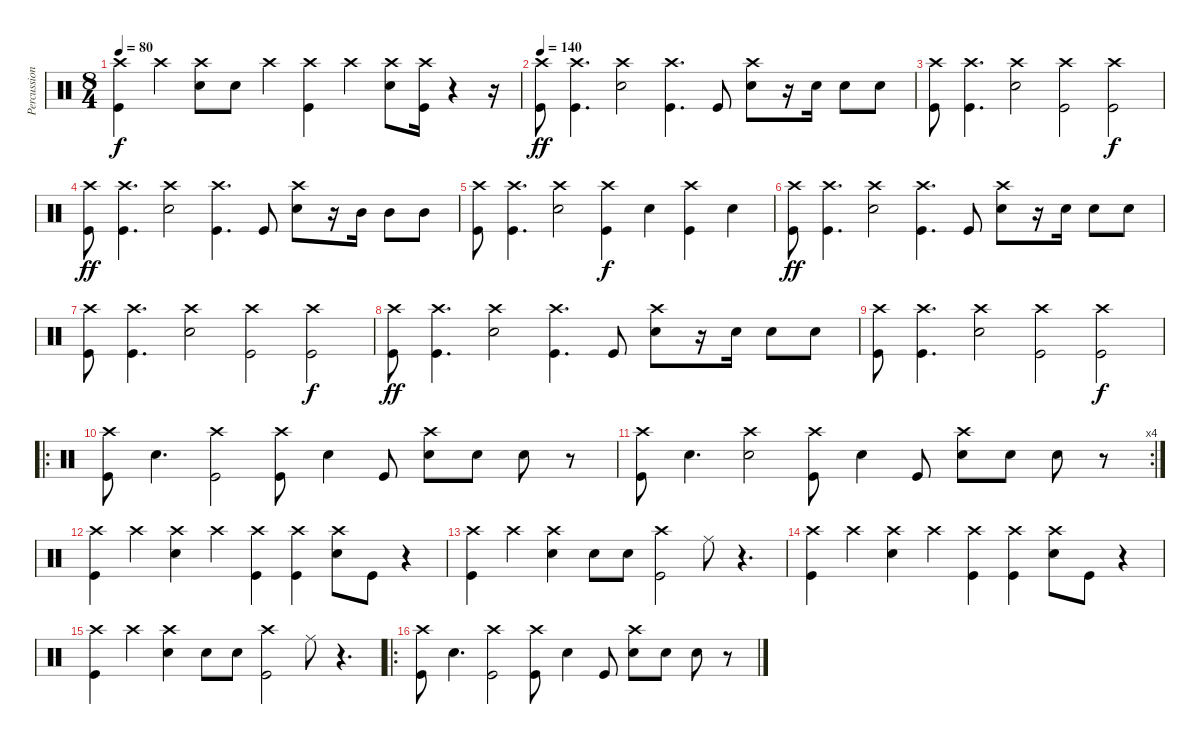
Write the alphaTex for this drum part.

\track ("Percussion" "Percussion") {instrument percussion}
\staff {score}
\articulation defaults
\ts (8 4)
\tempo 80
\clef neutral
\ks c
("Crash high (hit)" "Kick (hit)").4{dy f} "Crash high (hit)".4 ("Crash high (hit)" "Electric Snare (hit)").8 "Electric Snare (hit)".8 "Crash high (hit)".4 ("Crash high (hit)" "Kick (hit)").4 "Crash high (hit)".4 ("Crash high (hit)" "Electric Snare (hit)").8 ("Crash high (hit)" "Kick (hit)").16 r.4 r.16 |
\tempo 140
("Crash high (hit)" "Kick (hit)").8{dy ff} ("Crash high (hit)" "Kick (hit)").4{d} ("Crash high (hit)" "Electric Snare (hit)").2 ("Crash high (hit)" "Kick (hit)").4{d} "Kick (hit)".8 ("Crash high (hit)" "Electric Snare (hit)").8 r.16 "Electric Snare (hit)".16 "Electric Snare (hit)".8 "Electric Snare (hit)".8 |
("Crash high (hit)" "Kick (hit)").8 ("Crash high (hit)" "Kick (hit)").4{d} ("Crash high (hit)" "Electric Snare (hit)").2 ("Crash high (hit)" "Kick (hit)").2 ("Crash high (hit)" "Kick (hit)").2{dy f} |
("Crash high (hit)" "Kick (hit)").8{dy ff} ("Crash high (hit)" "Kick (hit)").4{d} ("Crash high (hit)" "Electric Snare (hit)").2 ("Crash high (hit)" "Kick (hit)").4{d} "Kick (hit)".8 ("Crash high (hit)" "Electric Snare (hit)").8 r.16 "Mid Tom (hit)".16 "Mid Tom (hit)".8 "Mid Tom (hit)".8 |
("Crash high (hit)" "Kick (hit)").8 ("Crash high (hit)" "Kick (hit)").4{d} ("Crash high (hit)" "Electric Snare (hit)").2 ("Crash high (hit)" "Kick (hit)").4{dy f} "Electric Snare (hit)".4 ("Crash high (hit)" "Kick (hit)").4 "Electric Snare (hit)".4 |
("Crash high (hit)" "Kick (hit)").8{dy ff} ("Crash high (hit)" "Kick (hit)").4{d} ("Crash high (hit)" "Electric Snare (hit)").2 ("Crash high (hit)" "Kick (hit)").4{d} "Kick (hit)".8 ("Crash high (hit)" "Electric Snare (hit)").8 r.16 "Electric Snare (hit)".16 "Electric Snare (hit)".8 "Electric Snare (hit)".8 |
("Crash high (hit)" "Kick (hit)").8 ("Crash high (hit)" "Kick (hit)").4{d} ("Crash high (hit)" "Electric Snare (hit)").2 ("Crash high (hit)" "Kick (hit)").2 ("Crash high (hit)" "Kick (hit)").2{dy f} |
("Crash high (hit)" "Kick (hit)").8{dy ff} ("Crash high (hit)" "Kick (hit)").4{d} ("Crash high (hit)" "Electric Snare (hit)").2 ("Crash high (hit)" "Kick (hit)").4{d} "Kick (hit)".8 ("Crash high (hit)" "Electric Snare (hit)").8 r.16 "Electric Snare (hit)".16 "Electric Snare (hit)".8 "Electric Snare (hit)".8 |
("Crash high (hit)" "Kick (hit)").8 ("Crash high (hit)" "Kick (hit)").4{d} ("Crash high (hit)" "Electric Snare (hit)").2 ("Crash high (hit)" "Kick (hit)").2 ("Crash high (hit)" "Kick (hit)").2{dy f} |
\ro
("Crash high (hit)" "Kick (hit)").8 "Electric Snare (hit)".4{d} ("Crash high (hit)" "Kick (hit)").2 ("Crash high (hit)" "Kick (hit)").8 "Electric Snare (hit)".4 "Kick (hit)".8 ("Crash high (hit)" "Electric Snare (hit)").8 "Electric Snare (hit)".8 "Electric Snare (hit)".8 r.8 |
\rc 4
("Crash high (hit)" "Kick (hit)").8 "Electric Snare (hit)".4{d} ("Crash high (hit)" "Electric Snare (hit)").2 ("Crash high (hit)" "Kick (hit)").8 "Electric Snare (hit)".4 "Kick (hit)".8 ("Crash high (hit)" "Electric Snare (hit)").8 "Electric Snare (hit)".8 "Electric Snare (hit)".8 r.8 |
("Crash high (hit)" "Kick (hit)").4 "Crash high (hit)".4 ("Crash high (hit)" "Electric Snare (hit)").4 "Crash high (hit)".4 ("Crash high (hit)" "Kick (hit)").4 ("Crash high (hit)" "Kick (hit)").4 ("Crash high (hit)" "Electric Snare (hit)").8 "Kick (hit)".8 r.4 |
("Crash high (hit)" "Kick (hit)").4 "Crash high (hit)".4 ("Crash high (hit)" "Electric Snare (hit)").4 "Electric Snare (hit)".8 "Electric Snare (hit)".8 ("Crash high (hit)" "Kick (hit)").2 "Ride (middle)".8 r.4{d} |
("Crash high (hit)" "Kick (hit)").4 "Crash high (hit)".4 ("Crash high (hit)" "Electric Snare (hit)").4 "Crash high (hit)".4 ("Crash high (hit)" "Kick (hit)").4 ("Crash high (hit)" "Kick (hit)").4 ("Crash high (hit)" "Electric Snare (hit)").8 "Kick (hit)".8 r.4 |
("Crash high (hit)" "Kick (hit)").4 "Crash high (hit)".4 ("Crash high (hit)" "Electric Snare (hit)").4 "Electric Snare (hit)".8 "Electric Snare (hit)".8 ("Crash high (hit)" "Kick (hit)").2 "Ride (middle)".8 r.4{d} |
\ro
("Crash high (hit)" "Kick (hit)").8 "Electric Snare (hit)".4{d} ("Crash high (hit)" "Kick (hit)").2 ("Crash high (hit)" "Kick (hit)").8 "Electric Snare (hit)".4 "Kick (hit)".8 ("Crash high (hit)" "Electric Snare (hit)").8 "Electric Snare (hit)".8 "Electric Snare (hit)".8 r.8
